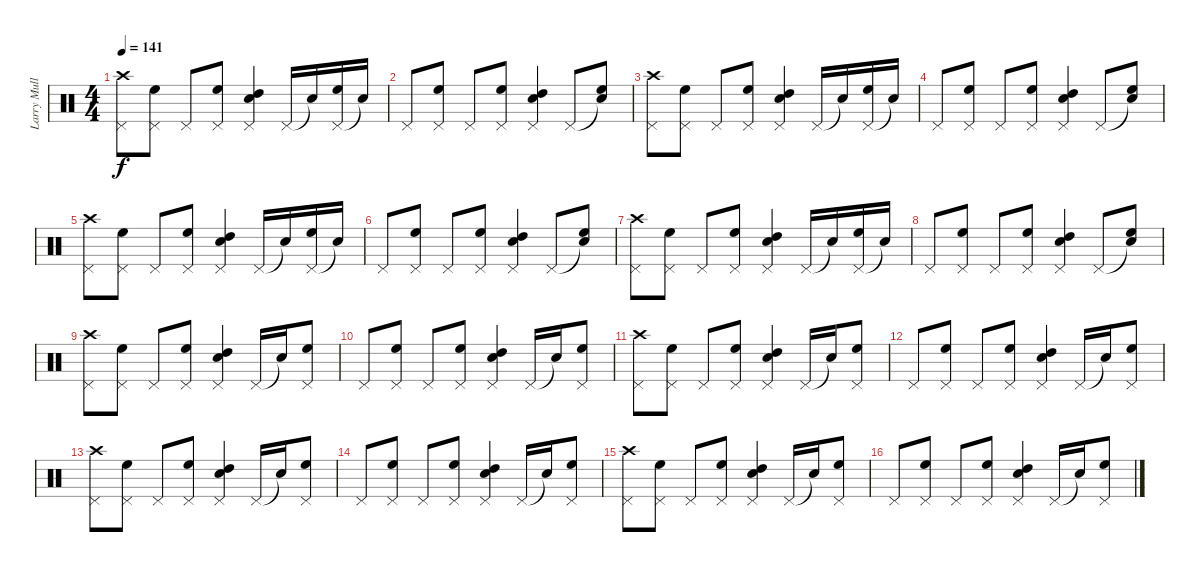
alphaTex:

\track ("Larry Mullen Jr's Drums" "Larry Mull") {instrument percussion}
\staff {score}
\articulation defaults
\ts (4 4)
\tempo 141
\clef neutral
\ks c
("Pedal Hi-Hat (hit)" "Crash high (hit)").8{dy f} ("Pedal Hi-Hat (hit)" "High Floor Tom (hit)").8 "Pedal Hi-Hat (hit)".8 ("Pedal Hi-Hat (hit)" "High Floor Tom (hit)").8 ("Pedal Hi-Hat (hit)" "High Tom (hit)" "Electric Snare (hit)").4 "Pedal Hi-Hat (hit)".16 "Snare (hit)"{t}.16 ("Pedal Hi-Hat (hit)" "High Floor Tom (hit)").16 "Snare (hit)"{t}.16 |
"Pedal Hi-Hat (hit)".8 ("Pedal Hi-Hat (hit)" "High Floor Tom (hit)").8 "Pedal Hi-Hat (hit)".8 ("Pedal Hi-Hat (hit)" "High Floor Tom (hit)").8 ("Pedal Hi-Hat (hit)" "High Tom (hit)" "Electric Snare (hit)").4 "Pedal Hi-Hat (hit)".8 ("Snare (hit)"{t} "High Floor Tom (hit)").8 |
("Pedal Hi-Hat (hit)" "Crash high (hit)").8 ("Pedal Hi-Hat (hit)" "High Floor Tom (hit)").8 "Pedal Hi-Hat (hit)".8 ("Pedal Hi-Hat (hit)" "High Floor Tom (hit)").8 ("Pedal Hi-Hat (hit)" "High Tom (hit)" "Electric Snare (hit)").4 "Pedal Hi-Hat (hit)".16 "Snare (hit)"{t}.16 ("Pedal Hi-Hat (hit)" "High Floor Tom (hit)").16 "Snare (hit)"{t}.16 |
"Pedal Hi-Hat (hit)".8 ("Pedal Hi-Hat (hit)" "High Floor Tom (hit)").8 "Pedal Hi-Hat (hit)".8 ("Pedal Hi-Hat (hit)" "High Floor Tom (hit)").8 ("Pedal Hi-Hat (hit)" "High Tom (hit)" "Electric Snare (hit)").4 "Pedal Hi-Hat (hit)".8 ("Snare (hit)"{t} "High Floor Tom (hit)").8 |
("Pedal Hi-Hat (hit)" "Crash high (hit)").8 ("Pedal Hi-Hat (hit)" "High Floor Tom (hit)").8 "Pedal Hi-Hat (hit)".8 ("Pedal Hi-Hat (hit)" "High Floor Tom (hit)").8 ("Pedal Hi-Hat (hit)" "High Tom (hit)" "Electric Snare (hit)").4 "Pedal Hi-Hat (hit)".16 "Snare (hit)"{t}.16 ("Pedal Hi-Hat (hit)" "High Floor Tom (hit)").16 "Snare (hit)"{t}.16 |
"Pedal Hi-Hat (hit)".8 ("Pedal Hi-Hat (hit)" "High Floor Tom (hit)").8 "Pedal Hi-Hat (hit)".8 ("Pedal Hi-Hat (hit)" "High Floor Tom (hit)").8 ("Pedal Hi-Hat (hit)" "High Tom (hit)" "Electric Snare (hit)").4 "Pedal Hi-Hat (hit)".8 ("Snare (hit)"{t} "High Floor Tom (hit)").8 |
("Pedal Hi-Hat (hit)" "Crash high (hit)").8 ("Pedal Hi-Hat (hit)" "High Floor Tom (hit)").8 "Pedal Hi-Hat (hit)".8 ("Pedal Hi-Hat (hit)" "High Floor Tom (hit)").8 ("Pedal Hi-Hat (hit)" "High Tom (hit)" "Electric Snare (hit)").4 "Pedal Hi-Hat (hit)".16 "Snare (hit)"{t}.16 ("Pedal Hi-Hat (hit)" "High Floor Tom (hit)").16 "Snare (hit)"{t}.16 |
"Pedal Hi-Hat (hit)".8 ("Pedal Hi-Hat (hit)" "High Floor Tom (hit)").8 "Pedal Hi-Hat (hit)".8 ("Pedal Hi-Hat (hit)" "High Floor Tom (hit)").8 ("Pedal Hi-Hat (hit)" "High Tom (hit)" "Electric Snare (hit)").4 "Pedal Hi-Hat (hit)".8 ("Snare (hit)"{t} "High Floor Tom (hit)").8 |
("Pedal Hi-Hat (hit)" "Crash high (hit)").8 ("Pedal Hi-Hat (hit)" "High Floor Tom (hit)").8 "Pedal Hi-Hat (hit)".8 ("Pedal Hi-Hat (hit)" "High Floor Tom (hit)").8 ("Pedal Hi-Hat (hit)" "High Tom (hit)" "Electric Snare (hit)").4 "Pedal Hi-Hat (hit)".16 "Snare (hit)"{t}.16 ("Pedal Hi-Hat (hit)" "High Floor Tom (hit)").8 |
"Pedal Hi-Hat (hit)".8 ("Pedal Hi-Hat (hit)" "High Floor Tom (hit)").8 "Pedal Hi-Hat (hit)".8 ("Pedal Hi-Hat (hit)" "High Floor Tom (hit)").8 ("Pedal Hi-Hat (hit)" "High Tom (hit)" "Electric Snare (hit)").4 "Pedal Hi-Hat (hit)".16 "Snare (hit)"{t}.16 ("Pedal Hi-Hat (hit)" "High Floor Tom (hit)").8 |
("Pedal Hi-Hat (hit)" "Crash high (hit)").8 ("Pedal Hi-Hat (hit)" "High Floor Tom (hit)").8 "Pedal Hi-Hat (hit)".8 ("Pedal Hi-Hat (hit)" "High Floor Tom (hit)").8 ("Pedal Hi-Hat (hit)" "High Tom (hit)" "Electric Snare (hit)").4 "Pedal Hi-Hat (hit)".16 "Snare (hit)"{t}.16 ("Pedal Hi-Hat (hit)" "High Floor Tom (hit)").8 |
"Pedal Hi-Hat (hit)".8 ("Pedal Hi-Hat (hit)" "High Floor Tom (hit)").8 "Pedal Hi-Hat (hit)".8 ("Pedal Hi-Hat (hit)" "High Floor Tom (hit)").8 ("Pedal Hi-Hat (hit)" "High Tom (hit)" "Electric Snare (hit)").4 "Pedal Hi-Hat (hit)".16 "Snare (hit)"{t}.16 ("Pedal Hi-Hat (hit)" "High Floor Tom (hit)").8 |
("Pedal Hi-Hat (hit)" "Crash high (hit)").8 ("Pedal Hi-Hat (hit)" "High Floor Tom (hit)").8 "Pedal Hi-Hat (hit)".8 ("Pedal Hi-Hat (hit)" "High Floor Tom (hit)").8 ("Pedal Hi-Hat (hit)" "High Tom (hit)" "Electric Snare (hit)").4 "Pedal Hi-Hat (hit)".16 "Snare (hit)"{t}.16 ("Pedal Hi-Hat (hit)" "High Floor Tom (hit)").8 |
"Pedal Hi-Hat (hit)".8 ("Pedal Hi-Hat (hit)" "High Floor Tom (hit)").8 "Pedal Hi-Hat (hit)".8 ("Pedal Hi-Hat (hit)" "High Floor Tom (hit)").8 ("Pedal Hi-Hat (hit)" "High Tom (hit)" "Electric Snare (hit)").4 "Pedal Hi-Hat (hit)".16 "Snare (hit)"{t}.16 ("Pedal Hi-Hat (hit)" "High Floor Tom (hit)").8 |
("Pedal Hi-Hat (hit)" "Crash high (hit)").8 ("Pedal Hi-Hat (hit)" "High Floor Tom (hit)").8 "Pedal Hi-Hat (hit)".8 ("Pedal Hi-Hat (hit)" "High Floor Tom (hit)").8 ("Pedal Hi-Hat (hit)" "High Tom (hit)" "Electric Snare (hit)").4 "Pedal Hi-Hat (hit)".16 "Snare (hit)"{t}.16 ("Pedal Hi-Hat (hit)" "High Floor Tom (hit)").8 |
"Pedal Hi-Hat (hit)".8 ("Pedal Hi-Hat (hit)" "High Floor Tom (hit)").8 "Pedal Hi-Hat (hit)".8 ("Pedal Hi-Hat (hit)" "High Floor Tom (hit)").8 ("Pedal Hi-Hat (hit)" "High Tom (hit)" "Electric Snare (hit)").4 "Pedal Hi-Hat (hit)".16 "Snare (hit)"{t}.16 ("Pedal Hi-Hat (hit)" "High Floor Tom (hit)").8
